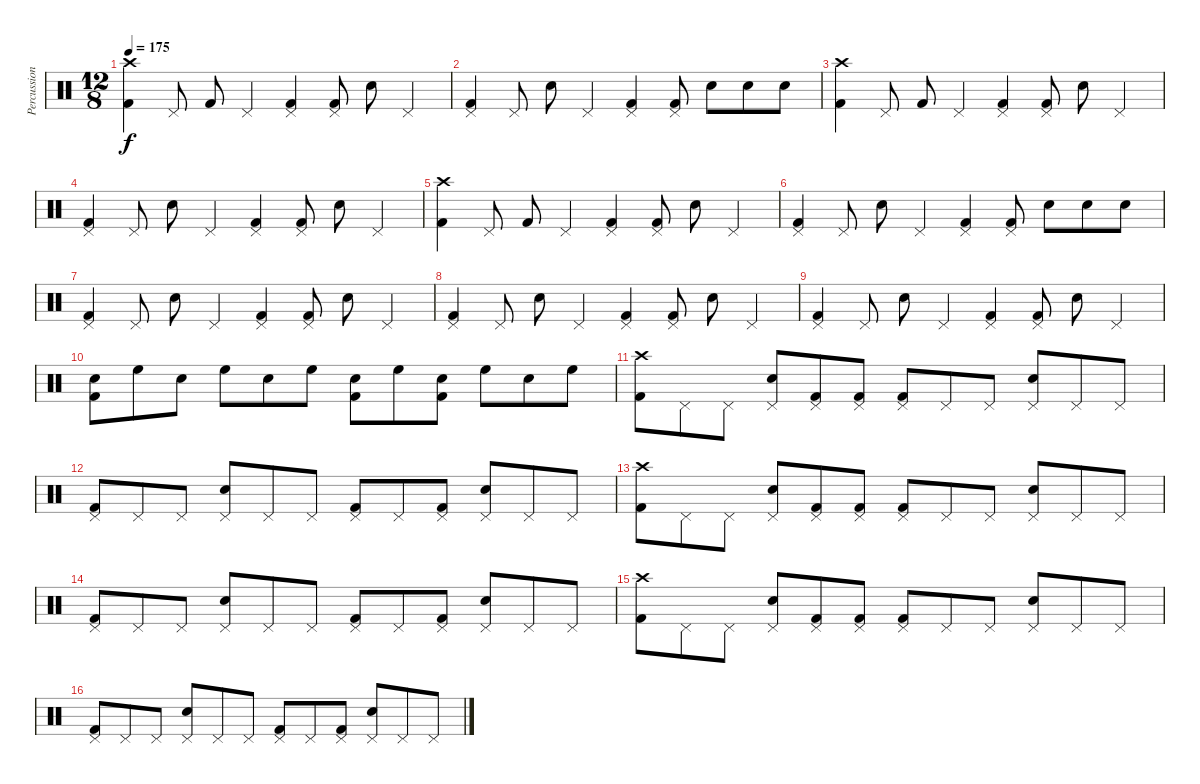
\track ("Percussion" "Percussion") {instrument percussion}
\staff {score}
\articulation defaults
\ts (12 8)
\tempo 175
\clef neutral
\ks c
("Kick (hit) 2" "Crash high (hit)").4{dy f} "Pedal Hi-Hat (hit)".8 "Kick (hit) 2".8 "Pedal Hi-Hat (hit)".4 ("Kick (hit) 2" "Pedal Hi-Hat (hit)").4 ("Kick (hit) 2" "Pedal Hi-Hat (hit)").8 "Snare (hit) 2".8 "Pedal Hi-Hat (hit)".4 |
("Kick (hit) 2" "Pedal Hi-Hat (hit)").4 "Pedal Hi-Hat (hit)".8 "Snare (hit) 2".8 "Pedal Hi-Hat (hit)".4 ("Kick (hit) 2" "Pedal Hi-Hat (hit)").4 ("Kick (hit) 2" "Pedal Hi-Hat (hit)").8 "Snare (hit) 2".8 "Snare (hit) 2".8 "Snare (hit) 2".8 |
("Kick (hit) 2" "Crash high (hit)").4 "Pedal Hi-Hat (hit)".8 "Kick (hit) 2".8 "Pedal Hi-Hat (hit)".4 ("Kick (hit) 2" "Pedal Hi-Hat (hit)").4 ("Kick (hit) 2" "Pedal Hi-Hat (hit)").8 "Snare (hit) 2".8 "Pedal Hi-Hat (hit)".4 |
("Kick (hit) 2" "Pedal Hi-Hat (hit)").4 "Pedal Hi-Hat (hit)".8 "Snare (hit) 2".8 "Pedal Hi-Hat (hit)".4 ("Kick (hit) 2" "Pedal Hi-Hat (hit)").4 ("Kick (hit) 2" "Pedal Hi-Hat (hit)").8 "Snare (hit) 2".8 "Pedal Hi-Hat (hit)".4 |
("Kick (hit) 2" "Crash high (hit)").4 "Pedal Hi-Hat (hit)".8 "Kick (hit) 2".8 "Pedal Hi-Hat (hit)".4 ("Kick (hit) 2" "Pedal Hi-Hat (hit)").4 ("Kick (hit) 2" "Pedal Hi-Hat (hit)").8 "Snare (hit) 2".8 "Pedal Hi-Hat (hit)".4 |
("Kick (hit) 2" "Pedal Hi-Hat (hit)").4 "Pedal Hi-Hat (hit)".8 "Snare (hit) 2".8 "Pedal Hi-Hat (hit)".4 ("Kick (hit) 2" "Pedal Hi-Hat (hit)").4 ("Kick (hit) 2" "Pedal Hi-Hat (hit)").8 "Snare (hit) 2".8 "Snare (hit) 2".8 "Snare (hit) 2".8 |
("Kick (hit) 2" "Pedal Hi-Hat (hit)").4 "Pedal Hi-Hat (hit)".8 "Snare (hit) 2".8 "Pedal Hi-Hat (hit)".4 ("Kick (hit) 2" "Pedal Hi-Hat (hit)").4 ("Kick (hit) 2" "Pedal Hi-Hat (hit)").8 "Snare (hit) 2".8 "Pedal Hi-Hat (hit)".4 |
("Kick (hit) 2" "Pedal Hi-Hat (hit)").4 "Pedal Hi-Hat (hit)".8 "Snare (hit) 2".8 "Pedal Hi-Hat (hit)".4 ("Kick (hit) 2" "Pedal Hi-Hat (hit)").4 ("Kick (hit) 2" "Pedal Hi-Hat (hit)").8 "Snare (hit) 2".8 "Pedal Hi-Hat (hit)".4 |
("Kick (hit) 2" "Pedal Hi-Hat (hit)").4 "Pedal Hi-Hat (hit)".8 "Snare (hit) 2".8 "Pedal Hi-Hat (hit)".4 ("Kick (hit) 2" "Pedal Hi-Hat (hit)").4 ("Kick (hit) 2" "Pedal Hi-Hat (hit)").8 "Snare (hit) 2".8 "Pedal Hi-Hat (hit)".4 |
("Kick (hit) 2" "Snare (hit) 2").8 "High Floor Tom (hit)".8 "Snare (hit) 2".8 "High Floor Tom (hit)".8 "Snare (hit) 2".8 "High Floor Tom (hit)".8 ("Kick (hit) 2" "Snare (hit) 2").8 "High Floor Tom (hit)".8 ("Kick (hit) 2" "Snare (hit) 2").8 "High Floor Tom (hit)".8 "Snare (hit) 2".8 "High Floor Tom (hit)".8 |
("Kick (hit) 2" "Crash high (hit)").8 "Pedal Hi-Hat (hit)".8 "Pedal Hi-Hat (hit)".8 ("Snare (hit) 2" "Pedal Hi-Hat (hit)").8 ("Kick (hit) 2" "Pedal Hi-Hat (hit)").8 ("Kick (hit) 2" "Pedal Hi-Hat (hit)").8 ("Kick (hit) 2" "Pedal Hi-Hat (hit)").8 "Pedal Hi-Hat (hit)".8 "Pedal Hi-Hat (hit)".8 ("Snare (hit) 2" "Pedal Hi-Hat (hit)").8 "Pedal Hi-Hat (hit)".8 "Pedal Hi-Hat (hit)".8 |
("Kick (hit) 2" "Pedal Hi-Hat (hit)").8 "Pedal Hi-Hat (hit)".8 "Pedal Hi-Hat (hit)".8 ("Snare (hit) 2" "Pedal Hi-Hat (hit)").8 "Pedal Hi-Hat (hit)".8 "Pedal Hi-Hat (hit)".8 ("Kick (hit) 2" "Pedal Hi-Hat (hit)").8 "Pedal Hi-Hat (hit)".8 ("Kick (hit) 2" "Pedal Hi-Hat (hit)").8 ("Snare (hit) 2" "Pedal Hi-Hat (hit)").8 "Pedal Hi-Hat (hit)".8 "Pedal Hi-Hat (hit)".8 |
("Kick (hit) 2" "Crash high (hit)").8 "Pedal Hi-Hat (hit)".8 "Pedal Hi-Hat (hit)".8 ("Snare (hit) 2" "Pedal Hi-Hat (hit)").8 ("Kick (hit) 2" "Pedal Hi-Hat (hit)").8 ("Kick (hit) 2" "Pedal Hi-Hat (hit)").8 ("Kick (hit) 2" "Pedal Hi-Hat (hit)").8 "Pedal Hi-Hat (hit)".8 "Pedal Hi-Hat (hit)".8 ("Snare (hit) 2" "Pedal Hi-Hat (hit)").8 "Pedal Hi-Hat (hit)".8 "Pedal Hi-Hat (hit)".8 |
("Kick (hit) 2" "Pedal Hi-Hat (hit)").8 "Pedal Hi-Hat (hit)".8 "Pedal Hi-Hat (hit)".8 ("Snare (hit) 2" "Pedal Hi-Hat (hit)").8 "Pedal Hi-Hat (hit)".8 "Pedal Hi-Hat (hit)".8 ("Kick (hit) 2" "Pedal Hi-Hat (hit)").8 "Pedal Hi-Hat (hit)".8 ("Kick (hit) 2" "Pedal Hi-Hat (hit)").8 ("Snare (hit) 2" "Pedal Hi-Hat (hit)").8 "Pedal Hi-Hat (hit)".8 "Pedal Hi-Hat (hit)".8 |
("Kick (hit) 2" "Crash high (hit)").8 "Pedal Hi-Hat (hit)".8 "Pedal Hi-Hat (hit)".8 ("Snare (hit) 2" "Pedal Hi-Hat (hit)").8 ("Kick (hit) 2" "Pedal Hi-Hat (hit)").8 ("Kick (hit) 2" "Pedal Hi-Hat (hit)").8 ("Kick (hit) 2" "Pedal Hi-Hat (hit)").8 "Pedal Hi-Hat (hit)".8 "Pedal Hi-Hat (hit)".8 ("Snare (hit) 2" "Pedal Hi-Hat (hit)").8 "Pedal Hi-Hat (hit)".8 "Pedal Hi-Hat (hit)".8 |
("Kick (hit) 2" "Pedal Hi-Hat (hit)").8 "Pedal Hi-Hat (hit)".8 "Pedal Hi-Hat (hit)".8 ("Snare (hit) 2" "Pedal Hi-Hat (hit)").8 "Pedal Hi-Hat (hit)".8 "Pedal Hi-Hat (hit)".8 ("Kick (hit) 2" "Pedal Hi-Hat (hit)").8 "Pedal Hi-Hat (hit)".8 ("Kick (hit) 2" "Pedal Hi-Hat (hit)").8 ("Snare (hit) 2" "Pedal Hi-Hat (hit)").8 "Pedal Hi-Hat (hit)".8 "Pedal Hi-Hat (hit)".8
